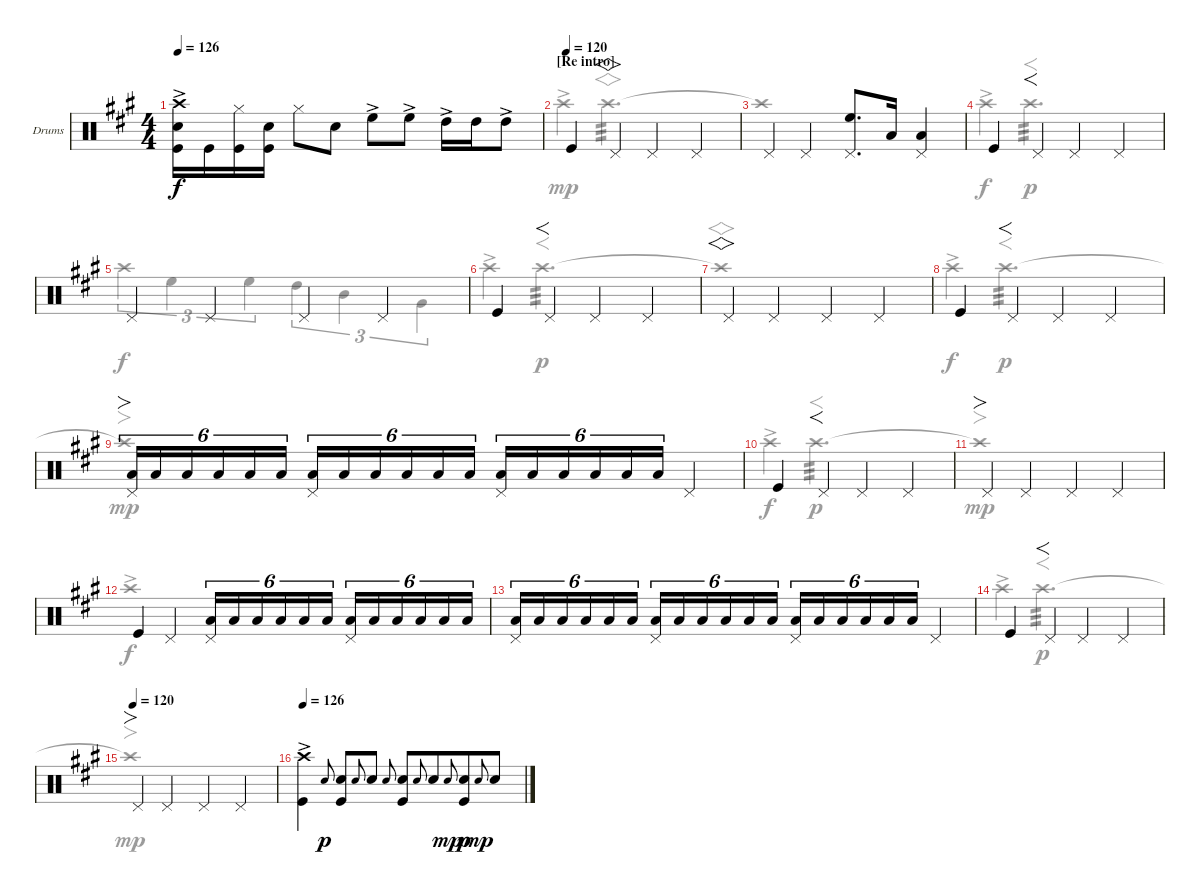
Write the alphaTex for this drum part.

\defaultSystemsLayout 4
\bracketExtendMode groupsimilarinstruments
\firstSystemTrackNameOrientation horizontal
\otherSystemsTrackNameOrientation horizontal
\track ("Drums" "Drums") {instrument percussion}
\staff {score}
\articulation defaults
\voice
\ts (4 4)
\tempo 126
\clef neutral
\ks a
("Kick (hit)" "Crash high (hit)"{ac} "Snare (hit) 2").16{dy f} "Kick (hit)".16 ("Kick (hit)" "Hi-Hat (closed)").16 ("Kick (hit)" "Snare (hit) 2").16 "Hi-Hat (closed)".8 "Snare (hit) 2".8 "High Floor Tom (hit)"{ac}.8 "High Floor Tom (hit)"{ac}.8 "High Tom (hit)"{ac}.16 "High Tom (hit)".16 "High Tom (hit)"{ac}.8 |
\section ("" "[Re intro]")
\tempo (120)
"Kick (hit)".4 "Pedal Hi-Hat (hit)".4{vs} "Pedal Hi-Hat (hit)".4 "Pedal Hi-Hat (hit)".4 |
"Pedal Hi-Hat (hit)".4 "Pedal Hi-Hat (hit)".4 ("Pedal Hi-Hat (hit)" "High Floor Tom (hit)").8{d} "Low Tom (hit)".16 ("Pedal Hi-Hat (hit)" "Low Tom (hit)").4 |
"Kick (hit)".4 "Pedal Hi-Hat (hit)".4{f} "Pedal Hi-Hat (hit)".4 "Pedal Hi-Hat (hit)".4 |
"Pedal Hi-Hat (hit)".4 "Pedal Hi-Hat (hit)".4 "Pedal Hi-Hat (hit)".4 "Pedal Hi-Hat (hit)".4 |
"Kick (hit)".4 "Pedal Hi-Hat (hit)".4{f} "Pedal Hi-Hat (hit)".4 "Pedal Hi-Hat (hit)".4 |
"Pedal Hi-Hat (hit)".4{vs} "Pedal Hi-Hat (hit)".4 "Pedal Hi-Hat (hit)".4 "Pedal Hi-Hat (hit)".4 |
"Kick (hit)".4 "Pedal Hi-Hat (hit)".4{f} "Pedal Hi-Hat (hit)".4 "Pedal Hi-Hat (hit)".4 |
("Pedal Hi-Hat (hit)" "Low Tom (hit)").16{fo tu (6 4)} "Low Tom (hit)".16{tu (6 4)} "Low Tom (hit)".16{tu (6 4)} "Low Tom (hit)".16{tu (6 4)} "Low Tom (hit)".16{tu (6 4)} "Low Tom (hit)".16{tu (6 4)} ("Pedal Hi-Hat (hit)" "Low Tom (hit)").16{tu (6 4)} "Low Tom (hit)".16{tu (6 4)} "Low Tom (hit)".16{tu (6 4)} "Low Tom (hit)".16{tu (6 4)} "Low Tom (hit)".16{tu (6 4)} "Low Tom (hit)".16{tu (6 4)} ("Pedal Hi-Hat (hit)" "Low Tom (hit)").16{tu (6 4)} "Low Tom (hit)".16{tu (6 4)} "Low Tom (hit)".16{tu (6 4)} "Low Tom (hit)".16{tu (6 4)} "Low Tom (hit)".16{tu (6 4)} "Low Tom (hit)".16{tu (6 4)} "Pedal Hi-Hat (hit)".4 |
"Kick (hit)".4 "Pedal Hi-Hat (hit)".4{f} "Pedal Hi-Hat (hit)".4 "Pedal Hi-Hat (hit)".4 |
"Pedal Hi-Hat (hit)".4{fo} "Pedal Hi-Hat (hit)".4 "Pedal Hi-Hat (hit)".4 "Pedal Hi-Hat (hit)".4 |
"Kick (hit)".4 "Pedal Hi-Hat (hit)".4 ("Pedal Hi-Hat (hit)" "Low Tom (hit)").16{tu (6 4)} "Low Tom (hit)".16{tu (6 4)} "Low Tom (hit)".16{tu (6 4)} "Low Tom (hit)".16{tu (6 4)} "Low Tom (hit)".16{tu (6 4)} "Low Tom (hit)".16{tu (6 4)} ("Pedal Hi-Hat (hit)" "Low Tom (hit)").16{tu (6 4)} "Low Tom (hit)".16{tu (6 4)} "Low Tom (hit)".16{tu (6 4)} "Low Tom (hit)".16{tu (6 4)} "Low Tom (hit)".16{tu (6 4)} "Low Tom (hit)".16{tu (6 4)} |
("Pedal Hi-Hat (hit)" "Low Tom (hit)").16{tu (6 4)} "Low Tom (hit)".16{tu (6 4)} "Low Tom (hit)".16{tu (6 4)} "Low Tom (hit)".16{tu (6 4)} "Low Tom (hit)".16{tu (6 4)} "Low Tom (hit)".16{tu (6 4)} ("Pedal Hi-Hat (hit)" "Low Tom (hit)").16{tu (6 4)} "Low Tom (hit)".16{tu (6 4)} "Low Tom (hit)".16{tu (6 4)} "Low Tom (hit)".16{tu (6 4)} "Low Tom (hit)".16{tu (6 4)} "Low Tom (hit)".16{tu (6 4)} ("Pedal Hi-Hat (hit)" "Low Tom (hit)").16{tu (6 4)} "Low Tom (hit)".16{tu (6 4)} "Low Tom (hit)".16{tu (6 4)} "Low Tom (hit)".16{tu (6 4)} "Low Tom (hit)".16{tu (6 4)} "Low Tom (hit)".16{tu (6 4)} "Pedal Hi-Hat (hit)".4 |
"Kick (hit)".4 "Pedal Hi-Hat (hit)".4{f} "Pedal Hi-Hat (hit)".4 "Pedal Hi-Hat (hit)".4 |
\tempo (120)
"Pedal Hi-Hat (hit)".4{fo} "Pedal Hi-Hat (hit)".4 "Pedal Hi-Hat (hit)".4 "Pedal Hi-Hat (hit)".4 |
\tempo 126
("Kick (hit)" "Crash high (hit)"{ac}).4 "Snare (hit) 2".8{gr onbeat dy p} ("Kick (hit)" "Snare (hit) 2").8 "Snare (hit) 2".8{gr onbeat} "Snare (hit) 2".8 "Snare (hit) 2".8{gr onbeat} ("Kick (hit)" "Snare (hit) 2").8 "Snare (hit) 2".8{gr onbeat beam merge} "Snare (hit) 2".8{beam merge} "Snare (hit) 2".8{gr onbeat dy mp beam merge} ("Kick (hit)" "Snare (hit) 2").8{dy p beam merge} "Snare (hit) 2".8{gr onbeat dy mp} "Snare (hit) 2".8
\voice
\clef neutral
\ottava regular
\simile none
\ks a
|
"Crash high (hit)"{ac}.4 "Crash high (hit)".2{vs d tp 3 dy mp} |
"Crash high (hit)"{t}.1 |
"Crash high (hit)"{ac}.4{dy f} "Crash high (hit)".2{f d tp 3 dy p} |
"Crash high (hit)".4{tu (3 2) dy f} "High Floor Tom (hit)".4{tu (3 2)} "High Floor Tom (hit)".4{tu (3 2)} "High Tom (hit)".4{tu (3 2)} "Mid Tom (hit)".4{tu (3 2)} "Very Low Tom (hit)".4{tu (3 2)} |
"Crash high (hit)"{ac}.4 "Crash high (hit)".2{f d tp 3 dy p} |
"Crash high (hit)"{t}.1{vs} |
"Crash high (hit)"{ac}.4{dy f} "Crash high (hit)".2{f d tp 3 dy p} |
"Crash high (hit)"{t}.1{fo dy mp} |
"Crash high (hit)"{ac}.4{dy f} "Crash high (hit)".2{f d tp 3 dy p} |
"Crash high (hit)"{t}.1{fo dy mp} |
"Crash high (hit)"{ac}.1{dy f} |
|
"Crash high (hit)"{ac}.4 "Crash high (hit)".2{f d tp 3 dy p} |
"Crash high (hit)"{t}.1{fo dy mp} |
